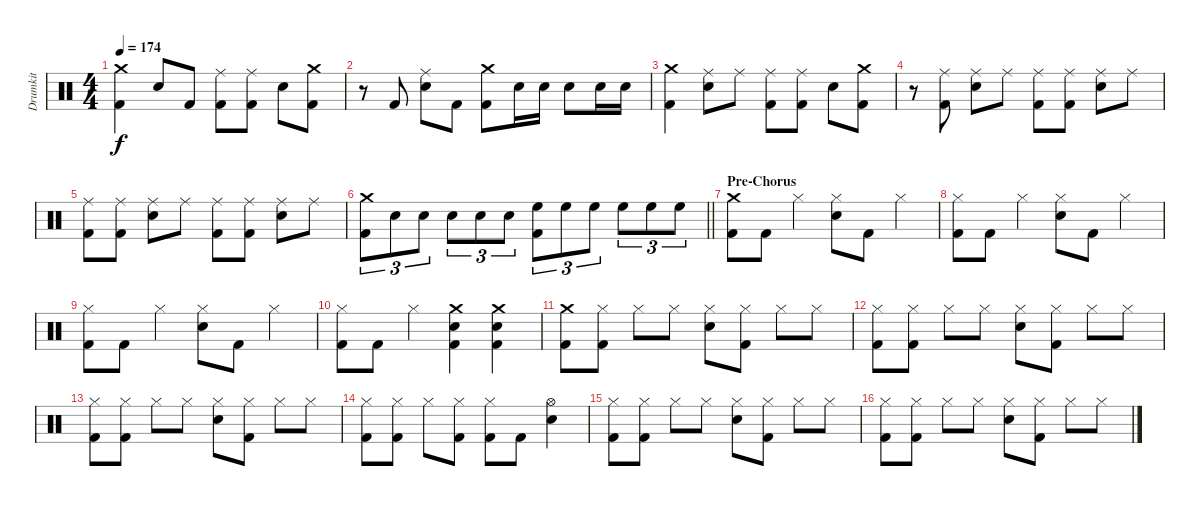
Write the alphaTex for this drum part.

\track ("Drumkit" "Drumkit") {instrument percussion}
\staff {score}
\articulation defaults
\ts (4 4)
\tempo 174
\clef neutral
\ks c
("Crash medium (hit)" "Kick (hit) 2").4{dy f} "Snare (hit) 2".8 "Kick (hit) 2".8 ("Ride (middle)" "Kick (hit) 2").8 ("Ride (middle)" "Kick (hit) 2").8 "Snare (hit) 2".8 ("Crash medium (hit)" "Kick (hit) 2").8 |
r.8 "Kick (hit) 2".8 ("Ride (middle)" "Snare (hit) 2").8 "Kick (hit) 2".8 ("Crash medium (hit)" "Kick (hit) 2").8 "Snare (hit) 2".16 "Snare (hit) 2".16 "Snare (hit) 2".8 "Snare (hit) 2".16 "Snare (hit) 2".16 |
("Crash medium (hit)" "Kick (hit) 2").4 ("Ride (middle)" "Snare (hit) 2").8 "Ride (middle)".8 ("Ride (middle)" "Kick (hit) 2").8 ("Ride (middle)" "Kick (hit) 2").8 "Snare (hit) 2".8 ("Crash medium (hit)" "Kick (hit) 2").8 |
r.8 ("Ride (middle)" "Kick (hit) 2").8 ("Ride (middle)" "Snare (hit) 2").8 "Ride (middle)".8 ("Ride (middle)" "Kick (hit) 2").8 ("Ride (middle)" "Kick (hit) 2").8 ("Ride (middle)" "Snare (hit) 2").8 "Ride (middle)".8 |
("Ride (middle)" "Kick (hit) 2").8 ("Ride (middle)" "Kick (hit) 2").8 ("Ride (middle)" "Snare (hit) 2").8 "Ride (middle)".8 ("Ride (middle)" "Kick (hit) 2").8 ("Ride (middle)" "Kick (hit) 2").8 ("Ride (middle)" "Snare (hit) 2").8 "Ride (middle)".8 |
\barLineRight lightlight
("Crash medium (hit)" "Kick (hit) 2").8{tu (3 2)} "Snare (hit) 2".8{tu (3 2)} "Snare (hit) 2".8{tu (3 2)} "Snare (hit) 2".8{tu (3 2)} "Snare (hit) 2".8{tu (3 2)} "Snare (hit) 2".8{tu (3 2)} ("High Floor Tom (hit)" "Kick (hit) 2").8{tu (3 2)} "High Floor Tom (hit)".8{tu (3 2)} "High Floor Tom (hit)".8{tu (3 2)} "High Floor Tom (hit)".8{tu (3 2)} "High Floor Tom (hit)".8{tu (3 2)} "High Floor Tom (hit)".8{tu (3 2)} |
\section ("" "Pre-Chorus")
("Crash medium (hit)" "Kick (hit) 2").8 "Kick (hit) 2".8 "Hi-Hat (closed)".4 ("Hi-Hat (closed)" "Snare (hit) 2").8 "Kick (hit) 2".8 "Hi-Hat (closed)".4 |
("Hi-Hat (closed)" "Kick (hit) 2").8 "Kick (hit) 2".8 "Hi-Hat (closed)".4 ("Hi-Hat (closed)" "Snare (hit) 2").8 "Kick (hit) 2".8 "Hi-Hat (closed)".4 |
("Hi-Hat (closed)" "Kick (hit) 2").8 "Kick (hit) 2".8 "Hi-Hat (closed)".4 ("Hi-Hat (closed)" "Snare (hit) 2").8 "Kick (hit) 2".8 "Hi-Hat (closed)".4 |
("Hi-Hat (closed)" "Kick (hit) 2").8 "Kick (hit) 2".8 "Hi-Hat (closed)".4 ("Crash medium (hit)" "Snare (hit) 2" "Kick (hit) 2").4 ("Crash medium (hit)" "Snare (hit) 2" "Kick (hit) 2").4 |
("Crash medium (hit)" "Kick (hit) 2").8 ("Hi-Hat (closed)" "Kick (hit) 2").8 "Hi-Hat (closed)".8 "Hi-Hat (closed)".8 ("Hi-Hat (closed)" "Snare (hit) 2").8 ("Hi-Hat (closed)" "Kick (hit) 2").8 "Hi-Hat (closed)".8 "Hi-Hat (closed)".8 |
("Hi-Hat (closed)" "Kick (hit) 2").8 ("Hi-Hat (closed)" "Kick (hit) 2").8 "Hi-Hat (closed)".8 "Hi-Hat (closed)".8 ("Hi-Hat (closed)" "Snare (hit) 2").8 ("Hi-Hat (closed)" "Kick (hit) 2").8 "Hi-Hat (closed)".8 "Hi-Hat (closed)".8 |
("Hi-Hat (closed)" "Kick (hit) 2").8 ("Hi-Hat (closed)" "Kick (hit) 2").8 "Hi-Hat (closed)".8 "Hi-Hat (closed)".8 ("Hi-Hat (closed)" "Snare (hit) 2").8 ("Hi-Hat (closed)" "Kick (hit) 2").8 "Hi-Hat (closed)".8 "Hi-Hat (closed)".8 |
("Hi-Hat (closed)" "Kick (hit) 2").8 ("Hi-Hat (closed)" "Kick (hit) 2").8 "Hi-Hat (closed)".8 ("Hi-Hat (closed)" "Kick (hit) 2").8 ("Hi-Hat (closed)" "Kick (hit) 2").8 "Kick (hit) 2".8 ("Hi-Hat (open)" "Snare (hit) 2").4 |
("Hi-Hat (closed)" "Kick (hit) 2").8 ("Hi-Hat (closed)" "Kick (hit) 2").8 "Hi-Hat (closed)".8 "Hi-Hat (closed)".8 ("Hi-Hat (closed)" "Snare (hit) 2").8 ("Hi-Hat (closed)" "Kick (hit) 2").8 "Hi-Hat (closed)".8 "Hi-Hat (closed)".8 |
("Hi-Hat (closed)" "Kick (hit) 2").8 ("Hi-Hat (closed)" "Kick (hit) 2").8 "Hi-Hat (closed)".8 "Hi-Hat (closed)".8 ("Hi-Hat (closed)" "Snare (hit) 2").8 ("Hi-Hat (closed)" "Kick (hit) 2").8 "Hi-Hat (closed)".8 "Hi-Hat (closed)".8
